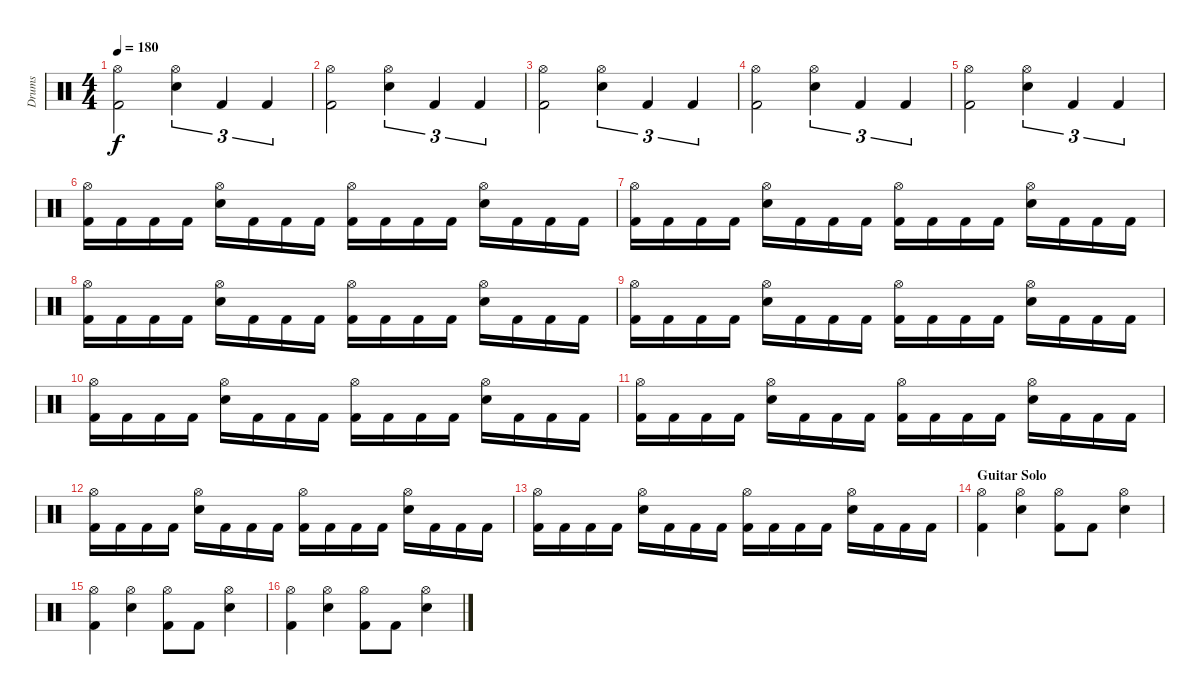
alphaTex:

\track ("Drums" "Drums") {instrument percussion}
\staff {score}
\articulation defaults
\ts (4 4)
\tempo 180
\clef neutral
\ks c
("Hi-Hat (open)" "Kick (hit) 2").2{dy f} ("Hi-Hat (open)" "Snare (hit) 2").4{tu (3 2)} "Kick (hit) 2".4{tu (3 2)} "Kick (hit) 2".4{tu (3 2)} |
("Hi-Hat (open)" "Kick (hit) 2").2 ("Hi-Hat (open)" "Snare (hit) 2").4{tu (3 2)} "Kick (hit) 2".4{tu (3 2)} "Kick (hit) 2".4{tu (3 2)} |
("Hi-Hat (open)" "Kick (hit) 2").2 ("Hi-Hat (open)" "Snare (hit) 2").4{tu (3 2)} "Kick (hit) 2".4{tu (3 2)} "Kick (hit) 2".4{tu (3 2)} |
("Hi-Hat (open)" "Kick (hit) 2").2 ("Hi-Hat (open)" "Snare (hit) 2").4{tu (3 2)} "Kick (hit) 2".4{tu (3 2)} "Kick (hit) 2".4{tu (3 2)} |
("Hi-Hat (open)" "Kick (hit) 2").2 ("Hi-Hat (open)" "Snare (hit) 2").4{tu (3 2)} "Kick (hit) 2".4{tu (3 2)} "Kick (hit) 2".4{tu (3 2)} |
("Hi-Hat (open)" "Kick (hit) 2").16 "Kick (hit) 2".16 "Kick (hit) 2".16 "Kick (hit) 2".16 ("Hi-Hat (open)" "Snare (hit) 2").16 "Kick (hit) 2".16 "Kick (hit) 2".16 "Kick (hit) 2".16 ("Hi-Hat (open)" "Kick (hit) 2").16 "Kick (hit) 2".16 "Kick (hit) 2".16 "Kick (hit) 2".16 ("Hi-Hat (open)" "Snare (hit) 2").16 "Kick (hit) 2".16 "Kick (hit) 2".16 "Kick (hit) 2".16 |
("Hi-Hat (open)" "Kick (hit) 2").16 "Kick (hit) 2".16 "Kick (hit) 2".16 "Kick (hit) 2".16 ("Hi-Hat (open)" "Snare (hit) 2").16 "Kick (hit) 2".16 "Kick (hit) 2".16 "Kick (hit) 2".16 ("Hi-Hat (open)" "Kick (hit) 2").16 "Kick (hit) 2".16 "Kick (hit) 2".16 "Kick (hit) 2".16 ("Hi-Hat (open)" "Snare (hit) 2").16 "Kick (hit) 2".16 "Kick (hit) 2".16 "Kick (hit) 2".16 |
("Hi-Hat (open)" "Kick (hit) 2").16 "Kick (hit) 2".16 "Kick (hit) 2".16 "Kick (hit) 2".16 ("Hi-Hat (open)" "Snare (hit) 2").16 "Kick (hit) 2".16 "Kick (hit) 2".16 "Kick (hit) 2".16 ("Hi-Hat (open)" "Kick (hit) 2").16 "Kick (hit) 2".16 "Kick (hit) 2".16 "Kick (hit) 2".16 ("Hi-Hat (open)" "Snare (hit) 2").16 "Kick (hit) 2".16 "Kick (hit) 2".16 "Kick (hit) 2".16 |
("Hi-Hat (open)" "Kick (hit) 2").16 "Kick (hit) 2".16 "Kick (hit) 2".16 "Kick (hit) 2".16 ("Hi-Hat (open)" "Snare (hit) 2").16 "Kick (hit) 2".16 "Kick (hit) 2".16 "Kick (hit) 2".16 ("Hi-Hat (open)" "Kick (hit) 2").16 "Kick (hit) 2".16 "Kick (hit) 2".16 "Kick (hit) 2".16 ("Hi-Hat (open)" "Snare (hit) 2").16 "Kick (hit) 2".16 "Kick (hit) 2".16 "Kick (hit) 2".16 |
("Hi-Hat (open)" "Kick (hit) 2").16 "Kick (hit) 2".16 "Kick (hit) 2".16 "Kick (hit) 2".16 ("Hi-Hat (open)" "Snare (hit) 2").16 "Kick (hit) 2".16 "Kick (hit) 2".16 "Kick (hit) 2".16 ("Hi-Hat (open)" "Kick (hit) 2").16 "Kick (hit) 2".16 "Kick (hit) 2".16 "Kick (hit) 2".16 ("Hi-Hat (open)" "Snare (hit) 2").16 "Kick (hit) 2".16 "Kick (hit) 2".16 "Kick (hit) 2".16 |
("Hi-Hat (open)" "Kick (hit) 2").16 "Kick (hit) 2".16 "Kick (hit) 2".16 "Kick (hit) 2".16 ("Hi-Hat (open)" "Snare (hit) 2").16 "Kick (hit) 2".16 "Kick (hit) 2".16 "Kick (hit) 2".16 ("Hi-Hat (open)" "Kick (hit) 2").16 "Kick (hit) 2".16 "Kick (hit) 2".16 "Kick (hit) 2".16 ("Hi-Hat (open)" "Snare (hit) 2").16 "Kick (hit) 2".16 "Kick (hit) 2".16 "Kick (hit) 2".16 |
("Hi-Hat (open)" "Kick (hit) 2").16 "Kick (hit) 2".16 "Kick (hit) 2".16 "Kick (hit) 2".16 ("Hi-Hat (open)" "Snare (hit) 2").16 "Kick (hit) 2".16 "Kick (hit) 2".16 "Kick (hit) 2".16 ("Hi-Hat (open)" "Kick (hit) 2").16 "Kick (hit) 2".16 "Kick (hit) 2".16 "Kick (hit) 2".16 ("Hi-Hat (open)" "Snare (hit) 2").16 "Kick (hit) 2".16 "Kick (hit) 2".16 "Kick (hit) 2".16 |
("Hi-Hat (open)" "Kick (hit) 2").16 "Kick (hit) 2".16 "Kick (hit) 2".16 "Kick (hit) 2".16 ("Hi-Hat (open)" "Snare (hit) 2").16 "Kick (hit) 2".16 "Kick (hit) 2".16 "Kick (hit) 2".16 ("Hi-Hat (open)" "Kick (hit) 2").16 "Kick (hit) 2".16 "Kick (hit) 2".16 "Kick (hit) 2".16 ("Hi-Hat (open)" "Snare (hit) 2").16 "Kick (hit) 2".16 "Kick (hit) 2".16 "Kick (hit) 2".16 |
\section ("" "Guitar Solo")
("Hi-Hat (open)" "Kick (hit) 2").4 ("Hi-Hat (open)" "Snare (hit) 2").4 ("Hi-Hat (open)" "Kick (hit) 2").8 "Kick (hit) 2".8 ("Hi-Hat (open)" "Snare (hit) 2").4 |
("Hi-Hat (open)" "Kick (hit) 2").4 ("Hi-Hat (open)" "Snare (hit) 2").4 ("Hi-Hat (open)" "Kick (hit) 2").8 "Kick (hit) 2".8 ("Hi-Hat (open)" "Snare (hit) 2").4 |
("Hi-Hat (open)" "Kick (hit) 2").4 ("Hi-Hat (open)" "Snare (hit) 2").4 ("Hi-Hat (open)" "Kick (hit) 2").8 "Kick (hit) 2".8 ("Hi-Hat (open)" "Snare (hit) 2").4
